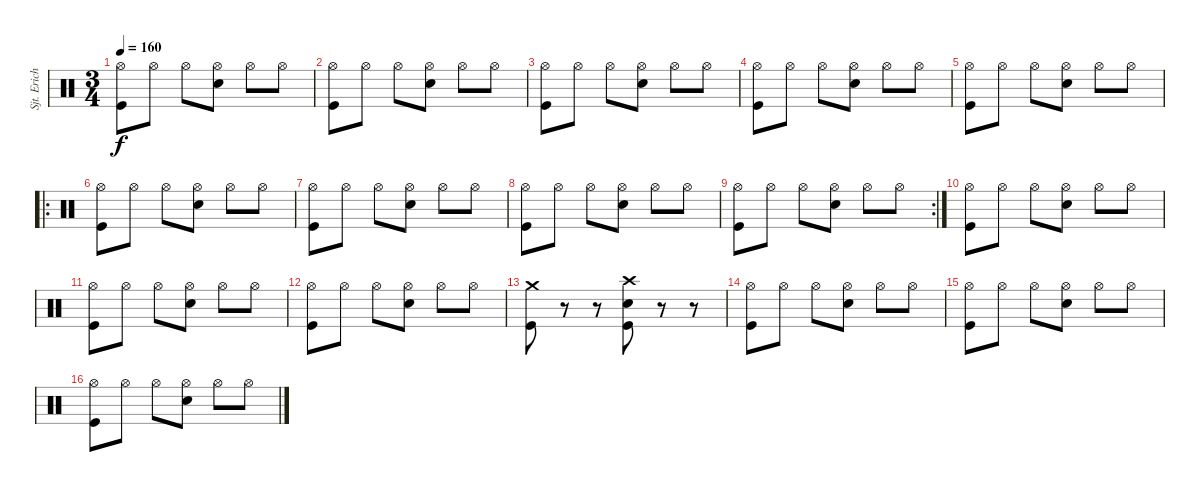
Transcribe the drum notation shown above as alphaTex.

\track ("Sjt. Erichsen" "Sjt. Erich") {instrument percussion}
\staff {score}
\articulation defaults
\ts (3 4)
\tempo 160
\clef neutral
\ks c
("Hi-Hat (open)" "Kick (hit)").8{dy f} "Hi-Hat (open)".8 "Hi-Hat (open)".8 ("Hi-Hat (open)" "Electric Snare (hit)").8 "Hi-Hat (open)".8 "Hi-Hat (open)".8 |
("Hi-Hat (open)" "Kick (hit)").8 "Hi-Hat (open)".8 "Hi-Hat (open)".8 ("Hi-Hat (open)" "Electric Snare (hit)").8 "Hi-Hat (open)".8 "Hi-Hat (open)".8 |
("Hi-Hat (open)" "Kick (hit)").8 "Hi-Hat (open)".8 "Hi-Hat (open)".8 ("Hi-Hat (open)" "Electric Snare (hit)").8 "Hi-Hat (open)".8 "Hi-Hat (open)".8 |
("Hi-Hat (open)" "Kick (hit)").8 "Hi-Hat (open)".8 "Hi-Hat (open)".8 ("Hi-Hat (open)" "Electric Snare (hit)").8 "Hi-Hat (open)".8 "Hi-Hat (open)".8 |
("Hi-Hat (open)" "Kick (hit)").8 "Hi-Hat (open)".8 "Hi-Hat (open)".8 ("Hi-Hat (open)" "Electric Snare (hit)").8 "Hi-Hat (open)".8 "Hi-Hat (open)".8 |
\ro
("Hi-Hat (open)" "Kick (hit)").8 "Hi-Hat (open)".8 "Hi-Hat (open)".8 ("Hi-Hat (open)" "Electric Snare (hit)").8 "Hi-Hat (open)".8 "Hi-Hat (open)".8 |
("Hi-Hat (open)" "Kick (hit)").8 "Hi-Hat (open)".8 "Hi-Hat (open)".8 ("Hi-Hat (open)" "Electric Snare (hit)").8 "Hi-Hat (open)".8 "Hi-Hat (open)".8 |
("Hi-Hat (open)" "Kick (hit)").8 "Hi-Hat (open)".8 "Hi-Hat (open)".8 ("Hi-Hat (open)" "Electric Snare (hit)").8 "Hi-Hat (open)".8 "Hi-Hat (open)".8 |
\rc 2
("Hi-Hat (open)" "Kick (hit)").8 "Hi-Hat (open)".8 "Hi-Hat (open)".8 ("Hi-Hat (open)" "Electric Snare (hit)").8 "Hi-Hat (open)".8 "Hi-Hat (open)".8 |
("Hi-Hat (open)" "Kick (hit)").8 "Hi-Hat (open)".8 "Hi-Hat (open)".8 ("Hi-Hat (open)" "Electric Snare (hit)").8 "Hi-Hat (open)".8 "Hi-Hat (open)".8 |
("Hi-Hat (open)" "Kick (hit)").8 "Hi-Hat (open)".8 "Hi-Hat (open)".8 ("Hi-Hat (open)" "Electric Snare (hit)").8 "Hi-Hat (open)".8 "Hi-Hat (open)".8 |
("Hi-Hat (open)" "Kick (hit)").8 "Hi-Hat (open)".8 "Hi-Hat (open)".8 ("Hi-Hat (open)" "Electric Snare (hit)").8 "Hi-Hat (open)".8 "Hi-Hat (open)".8 |
("Crash medium (hit)" "Kick (hit)").8 r.8 r.8 ("Crash high (hit)" "Electric Snare (hit)" "Kick (hit)").8 r.8 r.8 |
("Hi-Hat (open)" "Kick (hit)").8 "Hi-Hat (open)".8 "Hi-Hat (open)".8 ("Hi-Hat (open)" "Electric Snare (hit)").8 "Hi-Hat (open)".8 "Hi-Hat (open)".8 |
("Hi-Hat (open)" "Kick (hit)").8 "Hi-Hat (open)".8 "Hi-Hat (open)".8 ("Hi-Hat (open)" "Electric Snare (hit)").8 "Hi-Hat (open)".8 "Hi-Hat (open)".8 |
("Hi-Hat (open)" "Kick (hit)").8 "Hi-Hat (open)".8 "Hi-Hat (open)".8 ("Hi-Hat (open)" "Electric Snare (hit)").8 "Hi-Hat (open)".8 "Hi-Hat (open)".8
